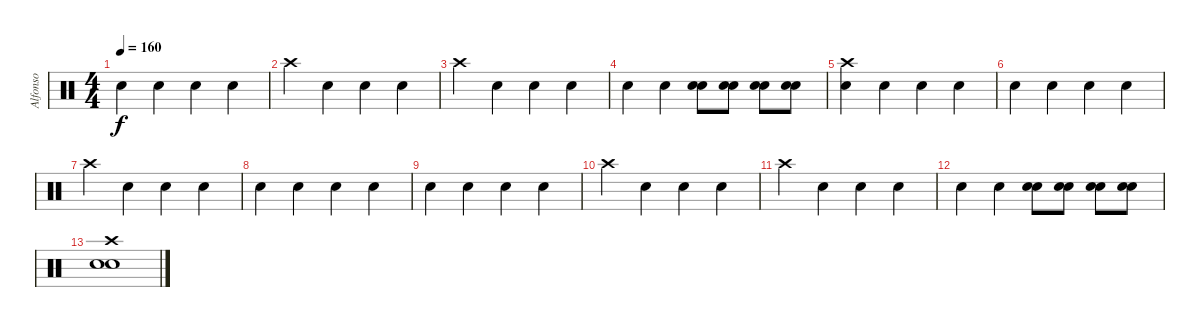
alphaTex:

\track ("Alfonso" "Alfonso") {instrument percussion}
\staff {score}
\articulation defaults
\ts (4 4)
\tempo 160
\clef neutral
\ks c "Electric Snare (hit)".4{dy f} "Electric Snare (hit)".4 "Electric Snare (hit)".4 "Electric Snare (hit)".4
|
"Crash high (hit)".4 "Electric Snare (hit)".4 "Electric Snare (hit)".4 "Electric Snare (hit)".4 |
"Crash high (hit)".4 "Electric Snare (hit)".4 "Electric Snare (hit)".4 "Electric Snare (hit)".4 |
"Electric Snare (hit)".4 "Electric Snare (hit)".4 ("Electric Snare (hit)" "Snare (hit) 2").8 ("Electric Snare (hit)" "Snare (hit) 2").8 ("Electric Snare (hit)" "Snare (hit) 2").8 ("Electric Snare (hit)" "Snare (hit) 2").8 |
("Electric Snare (hit)" "Crash high (hit)").4 "Electric Snare (hit)".4 "Electric Snare (hit)".4 "Electric Snare (hit)".4 |
"Electric Snare (hit)".4 "Electric Snare (hit)".4 "Electric Snare (hit)".4 "Electric Snare (hit)".4 |
"Crash high (hit)".4 "Electric Snare (hit)".4 "Electric Snare (hit)".4 "Electric Snare (hit)".4 |
"Electric Snare (hit)".4 "Electric Snare (hit)".4 "Electric Snare (hit)".4 "Electric Snare (hit)".4 |
"Electric Snare (hit)".4 "Electric Snare (hit)".4 "Electric Snare (hit)".4 "Electric Snare (hit)".4 |
"Crash high (hit)".4 "Electric Snare (hit)".4 "Electric Snare (hit)".4 "Electric Snare (hit)".4 |
"Crash high (hit)".4 "Electric Snare (hit)".4 "Electric Snare (hit)".4 "Electric Snare (hit)".4 |
"Electric Snare (hit)".4 "Electric Snare (hit)".4 ("Electric Snare (hit)" "Snare (hit) 2").8 ("Electric Snare (hit)" "Snare (hit) 2").8 ("Electric Snare (hit)" "Snare (hit) 2").8 ("Electric Snare (hit)" "Snare (hit) 2").8 |
("Snare (hit) 2" "Crash high (hit)" "Electric Snare (hit)").1
